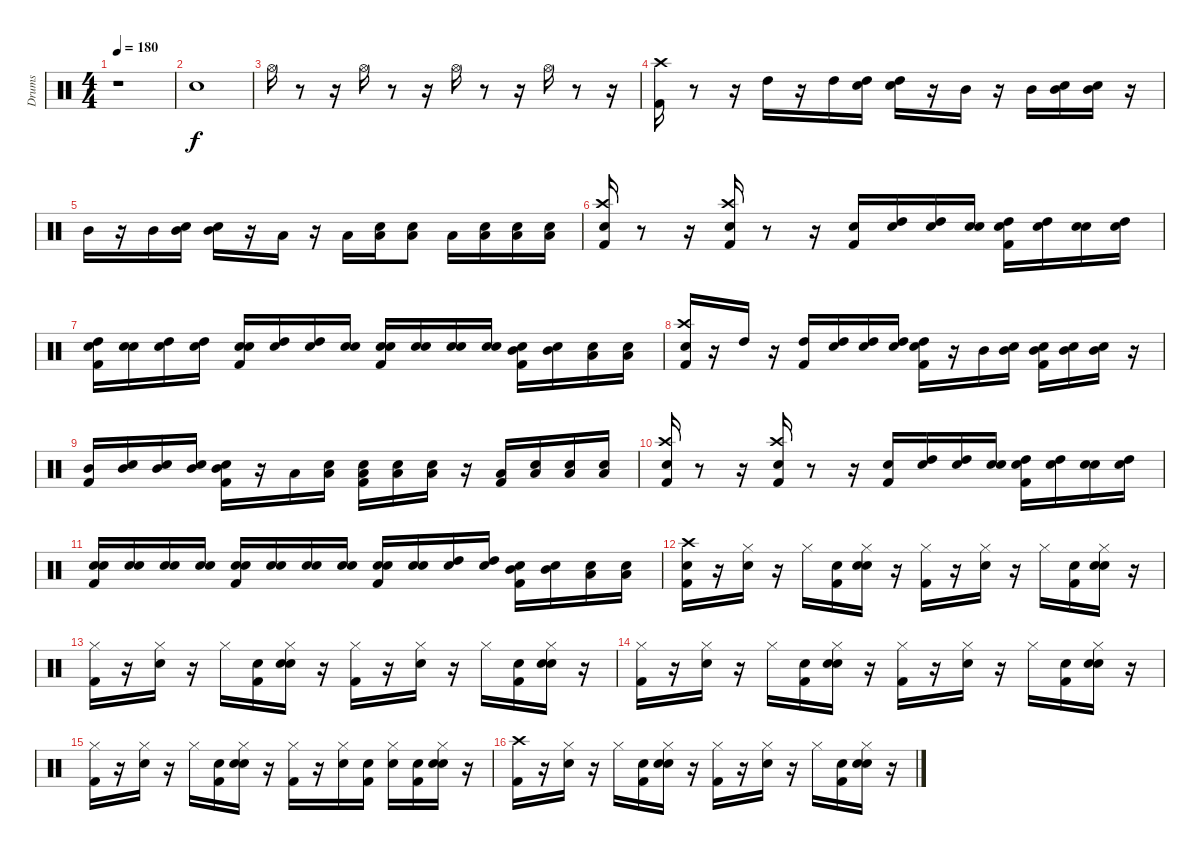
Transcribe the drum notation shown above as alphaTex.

\track ("Drums" "Drums") {instrument percussion}
\staff {score}
\articulation defaults
\ts (4 4)
\tempo 180
\clef neutral
\ks c
r.1{dy f} |
"Snare (hit)".1 |
"Hi-Hat (open)".16 r.8 r.16 "Hi-Hat (open)".16 r.8 r.16 "Hi-Hat (open)".16 r.8 r.16 "Hi-Hat (open)".16 r.8 r.16 |
("Crash high (hit)" "Kick (hit) 2").16 r.8 r.16 "High Tom (hit)".16 r.16 "High Tom (hit)".16 ("Snare (hit)" "High Tom (hit)").16 ("Snare (hit)" "High Tom (hit)").16 r.16 "Mid Tom (hit)".16 r.16 "Mid Tom (hit)".16 ("Snare (hit)" "Mid Tom (hit)").16 ("Snare (hit)" "Mid Tom (hit)").16 r.16 |
"Mid Tom (hit)".16 r.16 "Mid Tom (hit)".16 ("Snare (hit)" "Mid Tom (hit)").16 ("Snare (hit)" "Mid Tom (hit)").16 r.16 "Low Tom (hit)".16 r.16 "Low Tom (hit)".16 ("Snare (hit)" "Low Tom (hit)").16 ("Snare (hit)" "Low Tom (hit)").8 "Low Tom (hit)".16 ("Snare (hit)" "Low Tom (hit)").16 ("Snare (hit)" "Low Tom (hit)").16 ("Snare (hit)" "Low Tom (hit)").16 |
("Snare (hit)" "Crash high (hit)" "Kick (hit) 2").16 r.8 r.16 ("Snare (hit) 2" "Kick (hit) 2" "Crash high (hit)").16 r.8 r.16 ("Snare (hit) 2" "Kick (hit) 2").16 ("Snare (hit)" "High Tom (hit)").16 ("Snare (hit)" "High Tom (hit)").16 ("Snare (hit)" "Snare (hit) 2").16 ("Snare (hit)" "Kick (hit) 2" "High Tom (hit)").16 ("Snare (hit)" "High Tom (hit)").16 ("Snare (hit)" "Snare (hit) 2").16 ("Snare (hit)" "High Tom (hit)").16 |
("Snare (hit)" "High Tom (hit)" "Kick (hit) 2").16 ("Snare (hit)" "Snare (hit) 2").16 ("Snare (hit)" "High Tom (hit)").16 ("Snare (hit)" "High Tom (hit)").16 ("Snare (hit)" "Snare (hit) 2" "Kick (hit) 2").16 ("Snare (hit)" "High Tom (hit)").16 ("Snare (hit)" "High Tom (hit)").16 ("Snare (hit)" "Snare (hit) 2").16 ("Snare (hit)" "Snare (hit) 2" "Kick (hit) 2").16 ("Snare (hit)" "Snare (hit) 2").16 ("Snare (hit)" "Snare (hit) 2").16 ("Snare (hit)" "Snare (hit) 2").16 ("Snare (hit)" "Kick (hit) 2" "Mid Tom (hit)").16 ("Snare (hit)" "Mid Tom (hit)").16 ("Snare (hit)" "Low Floor Tom (hit)").16 ("Snare (hit)" "Low Floor Tom (hit)").16 |
("Snare (hit)" "Crash high (hit)" "Kick (hit) 2").16 r.16 "High Tom (hit)".16 r.16 ("High Tom (hit)" "Kick (hit) 2").16 ("Snare (hit)" "High Tom (hit)").16 ("Snare (hit)" "High Tom (hit)").16 ("Snare (hit)" "High Tom (hit)").16 ("Snare (hit)" "High Tom (hit)" "Kick (hit) 2").16 r.16 "Mid Tom (hit)".16 ("Snare (hit)" "Mid Tom (hit)").16 ("Snare (hit)" "Mid Tom (hit)" "Kick (hit) 2").16 ("Snare (hit)" "Mid Tom (hit)").16 ("Snare (hit)" "Mid Tom (hit)").16 r.16 |
("Mid Tom (hit)" "Kick (hit) 2").16 ("Snare (hit)" "Mid Tom (hit)").16 ("Snare (hit)" "Mid Tom (hit)").16 ("Snare (hit)" "Mid Tom (hit)").16 ("Snare (hit)" "Mid Tom (hit)" "Kick (hit) 2").16 r.16 "Low Floor Tom (hit)".16 ("Snare (hit)" "Low Floor Tom (hit)").16 ("Snare (hit)" "Low Floor Tom (hit)" "Kick (hit) 2").16 ("Snare (hit)" "Low Floor Tom (hit)").16 ("Snare (hit)" "Low Floor Tom (hit)").16 r.16 ("Low Floor Tom (hit)" "Kick (hit) 2").16 ("Snare (hit)" "Low Floor Tom (hit)").16 ("Snare (hit)" "Low Floor Tom (hit)").16 ("Snare (hit)" "Low Floor Tom (hit)").16 |
("Snare (hit)" "Crash high (hit)" "Kick (hit) 2").16 r.8 r.16 ("Kick (hit) 2" "Snare (hit) 2" "Crash high (hit)").16 r.8 r.16 ("Snare (hit) 2" "Kick (hit) 2").16 ("Snare (hit)" "High Tom (hit)").16 ("Snare (hit)" "High Tom (hit)").16 ("Snare (hit)" "Snare (hit) 2").16 ("Snare (hit)" "High Tom (hit)" "Kick (hit) 2").16 ("Snare (hit)" "High Tom (hit)").16 ("Snare (hit)" "Snare (hit) 2").16 ("Snare (hit)" "High Tom (hit)").16 |
("Snare (hit)" "Snare (hit) 2" "Kick (hit) 2").16 ("Snare (hit)" "Snare (hit) 2").16 ("Snare (hit)" "Snare (hit) 2").16 ("Snare (hit)" "Snare (hit) 2").16 ("Snare (hit)" "Snare (hit) 2" "Kick (hit) 2").16 ("Snare (hit)" "Snare (hit) 2").16 ("Snare (hit)" "Snare (hit) 2").16 ("Snare (hit)" "Snare (hit) 2").16 ("Snare (hit)" "Snare (hit) 2" "Kick (hit) 2").16 ("Snare (hit)" "Snare (hit) 2").16 ("Snare (hit)" "High Tom (hit)").16 ("Snare (hit)" "High Tom (hit)").16 ("Snare (hit)" "Mid Tom (hit)" "Kick (hit) 2").16 ("Snare (hit)" "Mid Tom (hit)").16 ("Snare (hit)" "Low Floor Tom (hit)").16 ("Snare (hit)" "Low Floor Tom (hit)").16 |
("Snare (hit)" "Crash high (hit)" "Kick (hit) 2").16 r.16 ("Snare (hit) 2" "Hi-Hat (closed)").16 r.16 "Hi-Hat (closed)".16 ("Snare (hit)" "Kick (hit) 2").16 ("Snare (hit)" "Snare (hit) 2" "Hi-Hat (closed)").16 r.16 ("Kick (hit) 2" "Hi-Hat (closed)").16 r.16 ("Snare (hit) 2" "Hi-Hat (closed)").16 r.16 "Hi-Hat (closed)".16 ("Snare (hit)" "Kick (hit) 2").16 ("Snare (hit)" "Snare (hit) 2" "Hi-Hat (closed)").16 r.16 |
("Kick (hit) 2" "Hi-Hat (closed)").16 r.16 ("Snare (hit) 2" "Hi-Hat (closed)").16 r.16 "Hi-Hat (closed)".16 ("Snare (hit)" "Kick (hit) 2").16 ("Snare (hit)" "Snare (hit) 2" "Hi-Hat (closed)").16 r.16 ("Kick (hit) 2" "Hi-Hat (closed)").16 r.16 ("Snare (hit) 2" "Hi-Hat (closed)").16 r.16 "Hi-Hat (closed)".16 ("Snare (hit)" "Kick (hit) 2").16 ("Snare (hit)" "Snare (hit) 2" "Hi-Hat (closed)").16 r.16 |
("Kick (hit) 2" "Hi-Hat (closed)").16 r.16 ("Snare (hit) 2" "Hi-Hat (closed)").16 r.16 "Hi-Hat (closed)".16 ("Snare (hit)" "Kick (hit) 2").16 ("Snare (hit)" "Snare (hit) 2" "Hi-Hat (closed)").16 r.16 ("Kick (hit) 2" "Hi-Hat (closed)").16 r.16 ("Snare (hit) 2" "Hi-Hat (closed)").16 r.16 "Hi-Hat (closed)".16 ("Snare (hit)" "Kick (hit) 2").16 ("Snare (hit)" "Snare (hit) 2" "Hi-Hat (closed)").16 r.16 |
("Kick (hit) 2" "Hi-Hat (closed)").16 r.16 ("Snare (hit) 2" "Hi-Hat (closed)").16 r.16 "Hi-Hat (closed)".16 ("Snare (hit)" "Kick (hit) 2").16 ("Snare (hit)" "Snare (hit) 2" "Hi-Hat (closed)").16 r.16 ("Kick (hit) 2" "Hi-Hat (closed)").16 r.16 ("Snare (hit) 2" "Hi-Hat (closed)").16 ("Snare (hit)" "Kick (hit) 2").16 ("Snare (hit)" "Hi-Hat (closed)").16 ("Snare (hit)" "Kick (hit) 2").16 ("Snare (hit)" "Snare (hit) 2" "Hi-Hat (closed)").16 r.16 |
("Kick (hit) 2" "Crash high (hit)").16 r.16 ("Snare (hit) 2" "Hi-Hat (closed)").16 r.16 "Hi-Hat (closed)".16 ("Snare (hit)" "Kick (hit) 2").16 ("Snare (hit)" "Snare (hit) 2" "Hi-Hat (closed)").16 r.16 ("Kick (hit) 2" "Hi-Hat (closed)").16 r.16 ("Snare (hit) 2" "Hi-Hat (closed)").16 r.16 "Hi-Hat (closed)".16 ("Snare (hit)" "Kick (hit) 2").16 ("Snare (hit)" "Snare (hit) 2" "Hi-Hat (closed)").16 r.16
